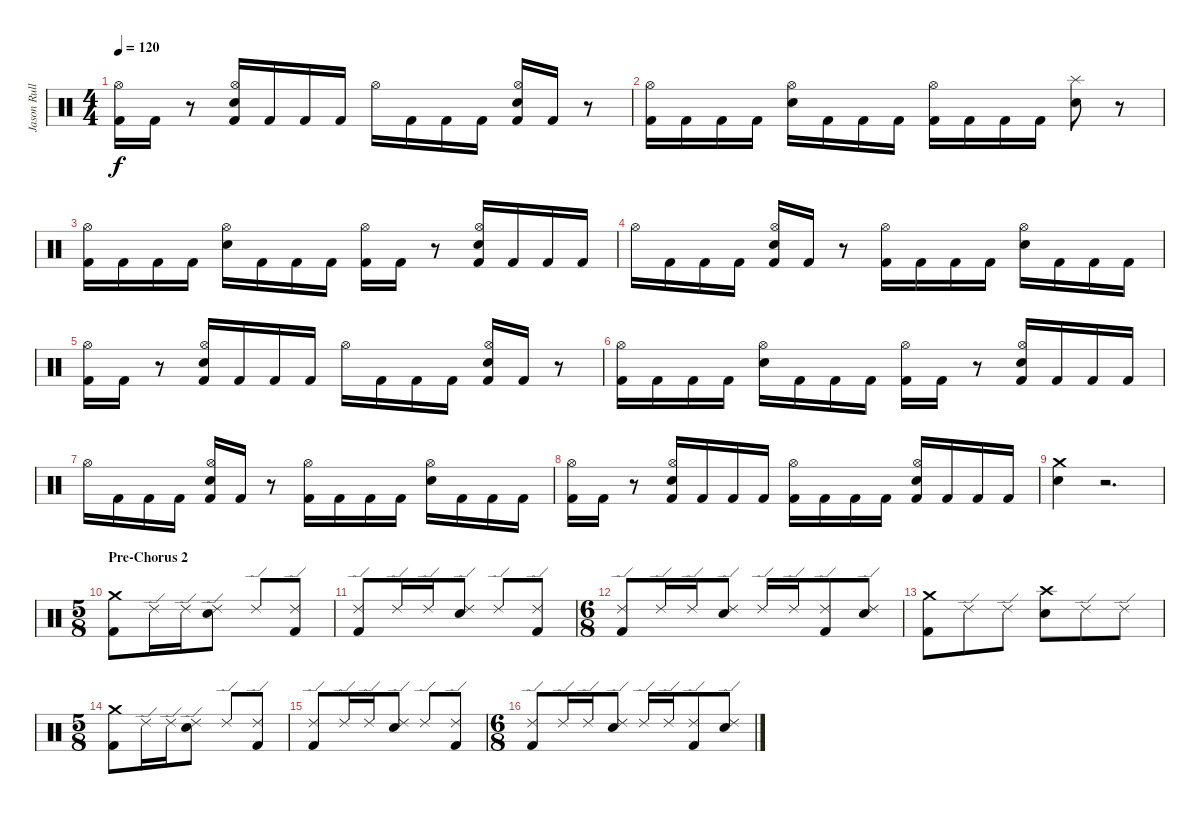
\track ("Jason Rullo" "Jason Rull") {instrument percussion}
\staff {score}
\articulation defaults
\ts (4 4)
\tempo 120
\clef neutral
\ks c
("Kick (hit) 2" "Hi-Hat (open)").16{dy f} "Kick (hit) 2".16 r.8 ("Electric Snare (hit)" "Kick (hit) 2" "Hi-Hat (open)").16 "Kick (hit) 2".16 "Kick (hit) 2".16 "Kick (hit) 2".16 "Hi-Hat (open)".16 "Kick (hit) 2".16 "Kick (hit) 2".16 "Kick (hit) 2".16 ("Kick (hit) 2" "Electric Snare (hit)" "Hi-Hat (open)").16 "Kick (hit) 2".16 r.8 |
("Kick (hit) 2" "Hi-Hat (open)").16 "Kick (hit) 2".16 "Kick (hit) 2".16 "Kick (hit) 2".16 ("Electric Snare (hit)" "Hi-Hat (open)").16 "Kick (hit) 2".16 "Kick (hit) 2".16 "Kick (hit) 2".16 ("Kick (hit) 2" "Hi-Hat (open)").16 "Kick (hit) 2".16 "Kick (hit) 2".16 "Kick (hit) 2".16 ("Splash (hit)" "Electric Snare (hit)").8 r.8 |
("Kick (hit) 2" "Hi-Hat (open)").16 "Kick (hit) 2".16 "Kick (hit) 2".16 "Kick (hit) 2".16 ("Electric Snare (hit)" "Hi-Hat (open)").16 "Kick (hit) 2".16 "Kick (hit) 2".16 "Kick (hit) 2".16 ("Kick (hit) 2" "Hi-Hat (open)").16 "Kick (hit) 2".16 r.8 ("Electric Snare (hit)" "Kick (hit) 2" "Hi-Hat (open)").16 "Kick (hit) 2".16 "Kick (hit) 2".16 "Kick (hit) 2".16 |
"Hi-Hat (open)".16 "Kick (hit) 2".16 "Kick (hit) 2".16 "Kick (hit) 2".16 ("Kick (hit) 2" "Electric Snare (hit)" "Hi-Hat (open)").16 "Kick (hit) 2".16 r.8 ("Kick (hit) 2" "Hi-Hat (open)").16 "Kick (hit) 2".16 "Kick (hit) 2".16 "Kick (hit) 2".16 ("Electric Snare (hit)" "Hi-Hat (open)").16 "Kick (hit) 2".16 "Kick (hit) 2".16 "Kick (hit) 2".16 |
("Kick (hit) 2" "Hi-Hat (open)").16 "Kick (hit) 2".16 r.8 ("Electric Snare (hit)" "Kick (hit) 2" "Hi-Hat (open)").16 "Kick (hit) 2".16 "Kick (hit) 2".16 "Kick (hit) 2".16 "Hi-Hat (open)".16 "Kick (hit) 2".16 "Kick (hit) 2".16 "Kick (hit) 2".16 ("Kick (hit) 2" "Electric Snare (hit)" "Hi-Hat (open)").16 "Kick (hit) 2".16 r.8 |
("Kick (hit) 2" "Hi-Hat (open)").16 "Kick (hit) 2".16 "Kick (hit) 2".16 "Kick (hit) 2".16 ("Electric Snare (hit)" "Hi-Hat (open)").16 "Kick (hit) 2".16 "Kick (hit) 2".16 "Kick (hit) 2".16 ("Kick (hit) 2" "Hi-Hat (open)").16 "Kick (hit) 2".16 r.8 ("Electric Snare (hit)" "Kick (hit) 2" "Hi-Hat (open)").16 "Kick (hit) 2".16 "Kick (hit) 2".16 "Kick (hit) 2".16 |
"Hi-Hat (open)".16 "Kick (hit) 2".16 "Kick (hit) 2".16 "Kick (hit) 2".16 ("Kick (hit) 2" "Electric Snare (hit)" "Hi-Hat (open)").16 "Kick (hit) 2".16 r.8 ("Kick (hit) 2" "Hi-Hat (open)").16 "Kick (hit) 2".16 "Kick (hit) 2".16 "Kick (hit) 2".16 ("Electric Snare (hit)" "Hi-Hat (open)").16 "Kick (hit) 2".16 "Kick (hit) 2".16 "Kick (hit) 2".16 |
("Kick (hit) 2" "Hi-Hat (open)").16 "Kick (hit) 2".16 r.8 ("Electric Snare (hit)" "Kick (hit) 2" "Hi-Hat (open)").16 "Kick (hit) 2".16 "Kick (hit) 2".16 "Kick (hit) 2".16 ("Kick (hit) 2" "Hi-Hat (open)").16 "Kick (hit) 2".16 "Kick (hit) 2".16 "Kick (hit) 2".16 ("Kick (hit) 2" "Electric Snare (hit)" "Hi-Hat (open)").16 "Kick (hit) 2".16 "Kick (hit) 2".16 "Kick (hit) 2".16 |
("Crash medium (hit)" "Electric Snare (hit)").4 r.2{d} |
\ts (5 8)
\section ("" "Pre-Chorus 2")
("Kick (hit) 2" "Crash medium (hit)").8 "Ride (edge) 2".16 "Ride (edge) 2".16 ("Electric Snare (hit)" "Ride (edge) 2").8 "Ride (edge) 2".8 ("Kick (hit) 2" "Ride (edge) 2").8 |
("Kick (hit) 2" "Ride (edge) 2").8 "Ride (edge) 2".16 "Ride (edge) 2".16 ("Electric Snare (hit)" "Ride (edge) 2").8 "Ride (edge) 2".8 ("Kick (hit) 2" "Ride (edge) 2").8 |
\ts (6 8)
("Kick (hit) 2" "Ride (edge) 2").8 "Ride (edge) 2".16 "Ride (edge) 2".16 ("Electric Snare (hit)" "Ride (edge) 2").8 "Ride (edge) 2".16 "Ride (edge) 2".16 ("Kick (hit) 2" "Ride (edge) 2").8 ("Electric Snare (hit)" "Ride (edge) 2").8 |
("Kick (hit) 2" "Crash medium (hit)").8 "Ride (edge) 2".8 "Ride (edge) 2".8 ("Electric Snare (hit)" "Crash high (hit)").8 "Ride (edge) 2".8 "Ride (edge) 2".8 |
\ts (5 8)
("Kick (hit) 2" "Crash medium (hit)").8 "Ride (edge) 2".16 "Ride (edge) 2".16 ("Electric Snare (hit)" "Ride (edge) 2").8 "Ride (edge) 2".8 ("Kick (hit) 2" "Ride (edge) 2").8 |
("Kick (hit) 2" "Ride (edge) 2").8 "Ride (edge) 2".16 "Ride (edge) 2".16 ("Electric Snare (hit)" "Ride (edge) 2").8 "Ride (edge) 2".8 ("Kick (hit) 2" "Ride (edge) 2").8 |
\ts (6 8)
("Kick (hit) 2" "Ride (edge) 2").8 "Ride (edge) 2".16 "Ride (edge) 2".16 ("Electric Snare (hit)" "Ride (edge) 2").8 "Ride (edge) 2".16 "Ride (edge) 2".16 ("Kick (hit) 2" "Ride (edge) 2").8 ("Electric Snare (hit)" "Ride (edge) 2").8
